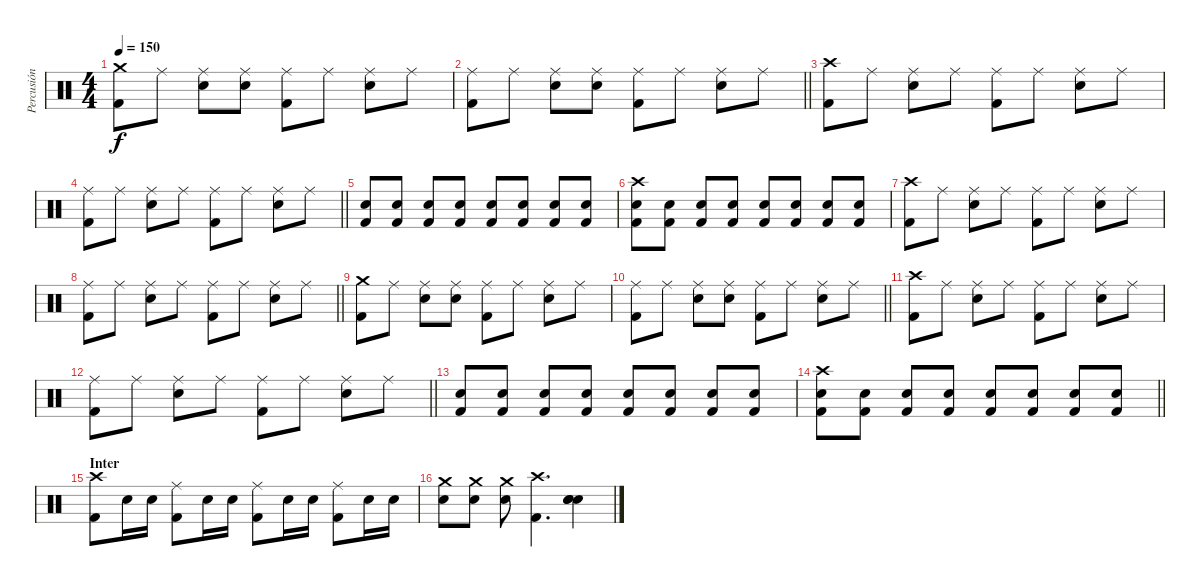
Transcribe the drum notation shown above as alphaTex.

\track ("Percusión" "Percusión") {instrument percussion}
\staff {score}
\articulation defaults
\ts (4 4)
\tempo 150
\clef neutral
\ks c
("Crash medium (hit)" "Kick (hit) 2").8{dy f} "Ride (middle)".8 ("Ride (middle)" "Snare (hit) 2").8 ("Ride (middle)" "Snare (hit) 2").8 ("Ride (middle)" "Kick (hit) 2").8 "Ride (middle)".8 ("Ride (middle)" "Snare (hit) 2").8 "Ride (middle)".8 |
\barLineRight lightlight
("Ride (middle)" "Kick (hit) 2").8 "Ride (middle)".8 ("Ride (middle)" "Snare (hit) 2").8 ("Ride (middle)" "Snare (hit) 2").8 ("Ride (middle)" "Kick (hit) 2").8 "Ride (middle)".8 ("Ride (middle)" "Snare (hit) 2").8 "Ride (middle)".8 |
("Crash high (hit)" "Kick (hit) 2").8 "Ride (middle)".8 ("Ride (middle)" "Snare (hit) 2").8 "Ride (middle)".8 ("Ride (middle)" "Kick (hit) 2").8 "Ride (middle)".8 ("Ride (middle)" "Snare (hit) 2").8 "Ride (middle)".8 |
\barLineRight lightlight
("Ride (middle)" "Kick (hit) 2").8 "Ride (middle)".8 ("Ride (middle)" "Snare (hit) 2").8 "Ride (middle)".8 ("Ride (middle)" "Kick (hit) 2").8 "Ride (middle)".8 ("Ride (middle)" "Snare (hit) 2").8 "Ride (middle)".8 |
("Snare (hit) 2" "Kick (hit) 2").8 ("Snare (hit) 2" "Kick (hit) 2").8 ("Snare (hit) 2" "Kick (hit) 2").8 ("Snare (hit) 2" "Kick (hit) 2").8 ("Snare (hit) 2" "Kick (hit) 2").8 ("Snare (hit) 2" "Kick (hit) 2").8 ("Snare (hit) 2" "Kick (hit) 2").8 ("Snare (hit) 2" "Kick (hit) 2").8 |
("Crash high (hit)" "Snare (hit) 2" "Kick (hit) 2").8 ("Snare (hit) 2" "Kick (hit) 2").8 ("Snare (hit) 2" "Kick (hit) 2").8 ("Snare (hit) 2" "Kick (hit) 2").8 ("Snare (hit) 2" "Kick (hit) 2").8 ("Snare (hit) 2" "Kick (hit) 2").8 ("Snare (hit) 2" "Kick (hit) 2").8 ("Snare (hit) 2" "Kick (hit) 2").8 |
("Crash high (hit)" "Kick (hit) 2").8 "Ride (middle)".8 ("Ride (middle)" "Snare (hit) 2").8 "Ride (middle)".8 ("Ride (middle)" "Kick (hit) 2").8 "Ride (middle)".8 ("Ride (middle)" "Snare (hit) 2").8 "Ride (middle)".8 |
\barLineRight lightlight
("Ride (middle)" "Kick (hit) 2").8 "Ride (middle)".8 ("Ride (middle)" "Snare (hit) 2").8 "Ride (middle)".8 ("Ride (middle)" "Kick (hit) 2").8 "Ride (middle)".8 ("Ride (middle)" "Snare (hit) 2").8 "Ride (middle)".8 |
("Crash medium (hit)" "Kick (hit) 2").8 "Ride (middle)".8 ("Ride (middle)" "Snare (hit) 2").8 ("Ride (middle)" "Snare (hit) 2").8 ("Ride (middle)" "Kick (hit) 2").8 "Ride (middle)".8 ("Ride (middle)" "Snare (hit) 2").8 "Ride (middle)".8 |
\barLineRight lightlight
("Ride (middle)" "Kick (hit) 2").8 "Ride (middle)".8 ("Ride (middle)" "Snare (hit) 2").8 ("Ride (middle)" "Snare (hit) 2").8 ("Ride (middle)" "Kick (hit) 2").8 "Ride (middle)".8 ("Ride (middle)" "Snare (hit) 2").8 "Ride (middle)".8 |
("Crash high (hit)" "Kick (hit) 2").8 "Ride (middle)".8 ("Ride (middle)" "Snare (hit) 2").8 "Ride (middle)".8 ("Ride (middle)" "Kick (hit) 2").8 "Ride (middle)".8 ("Ride (middle)" "Snare (hit) 2").8 "Ride (middle)".8 |
\barLineRight lightlight
("Ride (middle)" "Kick (hit) 2").8 "Ride (middle)".8 ("Ride (middle)" "Snare (hit) 2").8 "Ride (middle)".8 ("Ride (middle)" "Kick (hit) 2").8 "Ride (middle)".8 ("Ride (middle)" "Snare (hit) 2").8 "Ride (middle)".8 |
("Snare (hit) 2" "Kick (hit) 2").8 ("Snare (hit) 2" "Kick (hit) 2").8 ("Snare (hit) 2" "Kick (hit) 2").8 ("Snare (hit) 2" "Kick (hit) 2").8 ("Snare (hit) 2" "Kick (hit) 2").8 ("Snare (hit) 2" "Kick (hit) 2").8 ("Snare (hit) 2" "Kick (hit) 2").8 ("Snare (hit) 2" "Kick (hit) 2").8 |
\barLineRight lightlight
("Crash high (hit)" "Snare (hit) 2" "Kick (hit) 2").8 ("Snare (hit) 2" "Kick (hit) 2").8 ("Snare (hit) 2" "Kick (hit) 2").8 ("Snare (hit) 2" "Kick (hit) 2").8 ("Snare (hit) 2" "Kick (hit) 2").8 ("Snare (hit) 2" "Kick (hit) 2").8 ("Snare (hit) 2" "Kick (hit) 2").8 ("Snare (hit) 2" "Kick (hit) 2").8 |
\section ("" "Inter")
("Crash high (hit)" "Kick (hit) 2").8 "Snare (hit) 2".16 "Snare (hit) 2".16 ("Ride (middle)" "Kick (hit) 2").8 "Snare (hit) 2".16 "Snare (hit) 2".16 ("Ride (middle)" "Kick (hit) 2").8 "Snare (hit) 2".16 "Snare (hit) 2".16 ("Ride (middle)" "Kick (hit) 2").8 "Snare (hit) 2".16 "Snare (hit) 2".16 |
("Crash medium (hit)" "Snare (hit) 2").8 ("Crash medium (hit)" "Snare (hit) 2").8 ("Crash medium (hit)" "Snare (hit) 2").8 ("Crash high (hit)" "Kick (hit) 2").4{d} ("Snare (hit) 2" "Snare (hit) 2" "Snare (hit) 2").4
